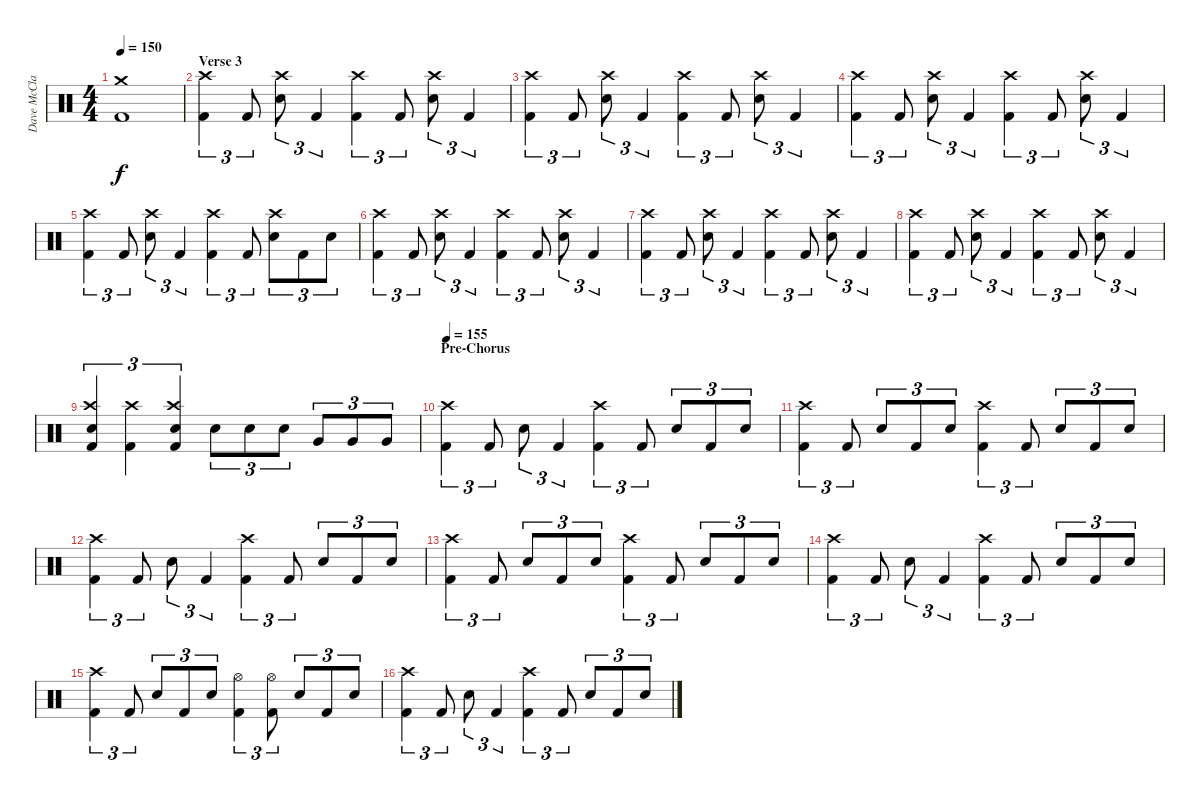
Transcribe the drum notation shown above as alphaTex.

\track ("Dave McClain" "Dave McCla") {instrument percussion}
\staff {score}
\articulation defaults
\ts (4 4)
\tempo 150
\clef neutral
\ks c
("Crash medium (hit)" "Kick (hit) 2").1{dy f} |
\section ("" "Verse 3")
("Crash high (hit)" "Kick (hit) 2").4{tu (3 2)} "Kick (hit) 2".8{tu (3 2)} ("Crash high (hit)" "Electric Snare (hit)").8{tu (3 2)} "Kick (hit) 2".4{tu (3 2)} ("Crash high (hit)" "Kick (hit) 2").4{tu (3 2)} "Kick (hit) 2".8{tu (3 2)} ("Crash high (hit)" "Electric Snare (hit)").8{tu (3 2)} "Kick (hit) 2".4{tu (3 2)} |
("Crash high (hit)" "Kick (hit) 2").4{tu (3 2)} "Kick (hit) 2".8{tu (3 2)} ("Crash high (hit)" "Electric Snare (hit)").8{tu (3 2)} "Kick (hit) 2".4{tu (3 2)} ("Crash high (hit)" "Kick (hit) 2").4{tu (3 2)} "Kick (hit) 2".8{tu (3 2)} ("Crash high (hit)" "Electric Snare (hit)").8{tu (3 2)} "Kick (hit) 2".4{tu (3 2)} |
("Crash high (hit)" "Kick (hit) 2").4{tu (3 2)} "Kick (hit) 2".8{tu (3 2)} ("Crash high (hit)" "Electric Snare (hit)").8{tu (3 2)} "Kick (hit) 2".4{tu (3 2)} ("Crash high (hit)" "Kick (hit) 2").4{tu (3 2)} "Kick (hit) 2".8{tu (3 2)} ("Crash high (hit)" "Electric Snare (hit)").8{tu (3 2)} "Kick (hit) 2".4{tu (3 2)} |
("Crash high (hit)" "Kick (hit) 2").4{tu (3 2)} "Kick (hit) 2".8{tu (3 2)} ("Crash high (hit)" "Electric Snare (hit)").8{tu (3 2)} "Kick (hit) 2".4{tu (3 2)} ("Crash high (hit)" "Kick (hit) 2").4{tu (3 2)} "Kick (hit) 2".8{tu (3 2)} ("Crash high (hit)" "Electric Snare (hit)").8{tu (3 2)} "Kick (hit) 2".8{tu (3 2)} "Electric Snare (hit)".8{tu (3 2)} |
("Crash high (hit)" "Kick (hit) 2").4{tu (3 2)} "Kick (hit) 2".8{tu (3 2)} ("Crash high (hit)" "Electric Snare (hit)").8{tu (3 2)} "Kick (hit) 2".4{tu (3 2)} ("Crash high (hit)" "Kick (hit) 2").4{tu (3 2)} "Kick (hit) 2".8{tu (3 2)} ("Crash high (hit)" "Electric Snare (hit)").8{tu (3 2)} "Kick (hit) 2".4{tu (3 2)} |
("Crash high (hit)" "Kick (hit) 2").4{tu (3 2)} "Kick (hit) 2".8{tu (3 2)} ("Crash high (hit)" "Electric Snare (hit)").8{tu (3 2)} "Kick (hit) 2".4{tu (3 2)} ("Crash high (hit)" "Kick (hit) 2").4{tu (3 2)} "Kick (hit) 2".8{tu (3 2)} ("Crash high (hit)" "Electric Snare (hit)").8{tu (3 2)} "Kick (hit) 2".4{tu (3 2)} |
("Crash high (hit)" "Kick (hit) 2").4{tu (3 2)} "Kick (hit) 2".8{tu (3 2)} ("Crash high (hit)" "Electric Snare (hit)").8{tu (3 2)} "Kick (hit) 2".4{tu (3 2)} ("Crash high (hit)" "Kick (hit) 2").4{tu (3 2)} "Kick (hit) 2".8{tu (3 2)} ("Crash high (hit)" "Electric Snare (hit)").8{tu (3 2)} "Kick (hit) 2".4{tu (3 2)} |
("Crash high (hit)" "Electric Snare (hit)" "Kick (hit) 2").4{tu (3 2)} ("Crash high (hit)" "Kick (hit) 2").4{tu (3 2)} ("Crash high (hit)" "Electric Snare (hit)" "Kick (hit) 2").4{tu (3 2)} "Electric Snare (hit)".8{tu (3 2)} "Electric Snare (hit)".8{tu (3 2)} "Electric Snare (hit)".8{tu (3 2)} "Very Low Tom (hit)".8{tu (3 2)} "Very Low Tom (hit)".8{tu (3 2)} "Very Low Tom (hit)".8{tu (3 2)} |
\section ("" "Pre-Chorus")
\tempo 155
("Crash high (hit)" "Kick (hit) 2").4{tu (3 2)} "Kick (hit) 2".8{tu (3 2)} "Electric Snare (hit)".8{tu (3 2)} "Kick (hit) 2".4{tu (3 2)} ("Crash high (hit)" "Kick (hit) 2").4{tu (3 2)} "Kick (hit) 2".8{tu (3 2)} "Electric Snare (hit)".8{tu (3 2)} "Kick (hit) 2".8{tu (3 2)} "Electric Snare (hit)".8{tu (3 2)} |
("Crash high (hit)" "Kick (hit) 2").4{tu (3 2)} "Kick (hit) 2".8{tu (3 2)} "Electric Snare (hit)".8{tu (3 2)} "Kick (hit) 2".8{tu (3 2)} "Electric Snare (hit)".8{tu (3 2)} ("Crash high (hit)" "Kick (hit) 2").4{tu (3 2)} "Kick (hit) 2".8{tu (3 2)} "Electric Snare (hit)".8{tu (3 2)} "Kick (hit) 2".8{tu (3 2)} "Electric Snare (hit)".8{tu (3 2)} |
("Crash high (hit)" "Kick (hit) 2").4{tu (3 2)} "Kick (hit) 2".8{tu (3 2)} "Electric Snare (hit)".8{tu (3 2)} "Kick (hit) 2".4{tu (3 2)} ("Crash high (hit)" "Kick (hit) 2").4{tu (3 2)} "Kick (hit) 2".8{tu (3 2)} "Electric Snare (hit)".8{tu (3 2)} "Kick (hit) 2".8{tu (3 2)} "Electric Snare (hit)".8{tu (3 2)} |
("Crash high (hit)" "Kick (hit) 2").4{tu (3 2)} "Kick (hit) 2".8{tu (3 2)} "Electric Snare (hit)".8{tu (3 2)} "Kick (hit) 2".8{tu (3 2)} "Electric Snare (hit)".8{tu (3 2)} ("Crash high (hit)" "Kick (hit) 2").4{tu (3 2)} "Kick (hit) 2".8{tu (3 2)} "Electric Snare (hit)".8{tu (3 2)} "Kick (hit) 2".8{tu (3 2)} "Electric Snare (hit)".8{tu (3 2)} |
("Crash high (hit)" "Kick (hit) 2").4{tu (3 2)} "Kick (hit) 2".8{tu (3 2)} "Electric Snare (hit)".8{tu (3 2)} "Kick (hit) 2".4{tu (3 2)} ("Crash high (hit)" "Kick (hit) 2").4{tu (3 2)} "Kick (hit) 2".8{tu (3 2)} "Electric Snare (hit)".8{tu (3 2)} "Kick (hit) 2".8{tu (3 2)} "Electric Snare (hit)".8{tu (3 2)} |
("Crash high (hit)" "Kick (hit) 2").4{tu (3 2)} "Kick (hit) 2".8{tu (3 2)} "Electric Snare (hit)".8{tu (3 2)} "Kick (hit) 2".8{tu (3 2)} "Electric Snare (hit)".8{tu (3 2)} ("Hi-Hat (open)" "Kick (hit) 2").4{tu (3 2)} ("Hi-Hat (open)" "Kick (hit) 2").8{tu (3 2)} "Electric Snare (hit)".8{tu (3 2)} "Kick (hit) 2".8{tu (3 2)} "Electric Snare (hit)".8{tu (3 2)} |
("Crash high (hit)" "Kick (hit) 2").4{tu (3 2)} "Kick (hit) 2".8{tu (3 2)} "Electric Snare (hit)".8{tu (3 2)} "Kick (hit) 2".4{tu (3 2)} ("Crash high (hit)" "Kick (hit) 2").4{tu (3 2)} "Kick (hit) 2".8{tu (3 2)} "Electric Snare (hit)".8{tu (3 2)} "Kick (hit) 2".8{tu (3 2)} "Electric Snare (hit)".8{tu (3 2)}
